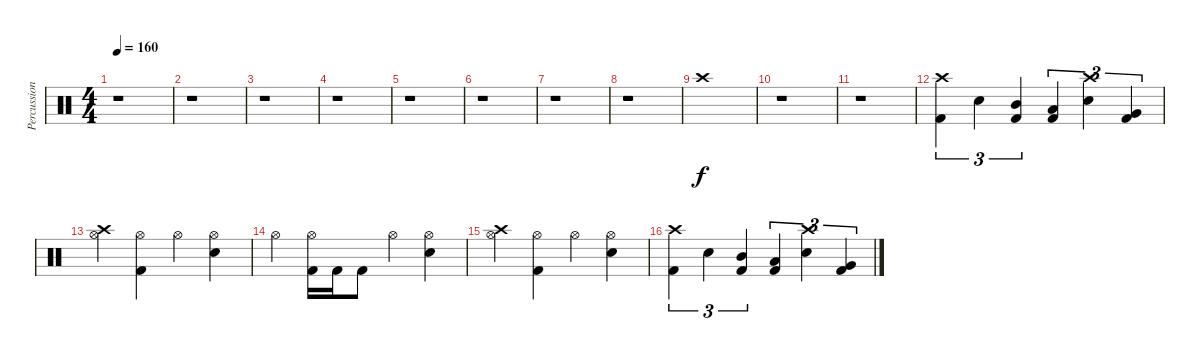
\track ("Percussions" "Percussion") {instrument percussion}
\staff {score}
\articulation defaults
\ts (4 4)
\tempo 160
\clef neutral
\ks c
r.1{dy f} |
r.1 |
r.1 |
r.1 |
r.1 |
r.1 |
r.1 |
r.1 |
"Crash high (hit)".1 |
r.1 |
r.1 |
("Kick (hit) 2" "Crash high (hit)").4{tu (3 2)} "Electric Snare (hit)".4{tu (3 2)} ("Kick (hit) 2" "Mid Tom (hit)").4{tu (3 2)} ("Kick (hit) 2" "Low Tom (hit)").4{tu (3 2)} ("Crash high (hit)" "Electric Snare (hit)").4{tu (3 2)} ("Kick (hit) 2" "Very Low Tom (hit)").4{tu (3 2)} |
("Crash high (hit)" "Hi-Hat (open)").4 ("Kick (hit) 2" "Hi-Hat (open)").4 "Hi-Hat (open)".4 ("Hi-Hat (open)" "Electric Snare (hit)").4 |
"Hi-Hat (open)".4 ("Kick (hit) 2" "Hi-Hat (open)").16 "Kick (hit) 2".16 "Kick (hit) 2".8 "Hi-Hat (open)".4 ("Hi-Hat (open)" "Electric Snare (hit)").4 |
("Crash high (hit)" "Hi-Hat (open)").4 ("Kick (hit) 2" "Hi-Hat (open)").4 "Hi-Hat (open)".4 ("Hi-Hat (open)" "Electric Snare (hit)").4 |
("Kick (hit) 2" "Crash high (hit)").4{tu (3 2)} "Electric Snare (hit)".4{tu (3 2)} ("Kick (hit) 2" "Mid Tom (hit)").4{tu (3 2)} ("Kick (hit) 2" "Low Tom (hit)").4{tu (3 2)} ("Crash high (hit)" "Electric Snare (hit)").4{tu (3 2)} ("Kick (hit) 2" "Very Low Tom (hit)").4{tu (3 2)}
